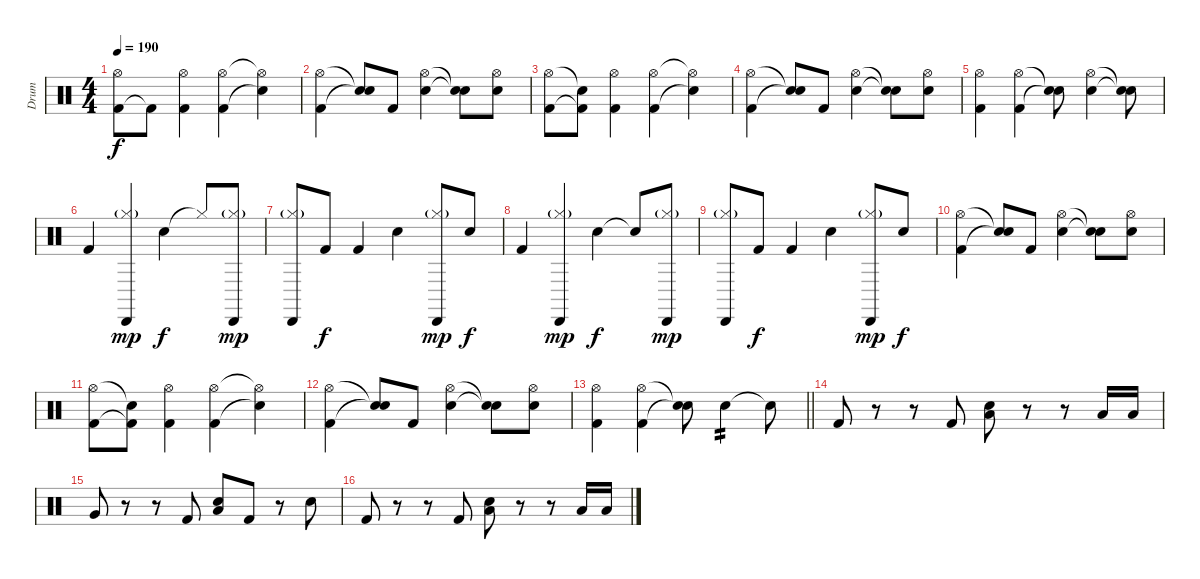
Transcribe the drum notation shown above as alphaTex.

\track ("Drum" "Drum") {instrument percussion}
\staff {score}
\articulation defaults
\ts (4 4)
\tempo 190
\clef neutral
\ks c
("Kick (hit) 2" "Hi-Hat (open)").8{dy f} "Kick (hit) 2"{t}.8 ("Kick (hit) 2" "Hi-Hat (open)").4 ("Kick (hit) 2" "Hi-Hat (open)").4 ("Snare (hit)"{t} "Hi-Hat (open)"{t}).4 |
("Kick (hit) 2" "Hi-Hat (open)").4 ("Snare (hit)"{t} "Snare (hit)"{t}).8 "Kick (hit) 2".8 ("Snare (hit) 2" "Hi-Hat (open)").4 ("Snare (hit)"{t} "Snare (hit)"{t}).8 ("Snare (hit) 2" "Hi-Hat (open)").8 |
("Kick (hit) 2" "Hi-Hat (open)").8 ("Kick (hit) 2"{t} "Snare (hit)"{t}).8 ("Kick (hit) 2" "Hi-Hat (open)").4 ("Kick (hit) 2" "Hi-Hat (open)").4 ("Snare (hit)"{t} "Hi-Hat (open)"{t}).4 |
("Kick (hit) 2" "Hi-Hat (open)").4 ("Snare (hit)"{t} "Snare (hit)"{t}).8 "Kick (hit) 2".8 ("Snare (hit) 2" "Hi-Hat (open)").4 ("Snare (hit)"{t} "Snare (hit)"{t}).8 ("Snare (hit) 2" "Hi-Hat (open)").8 |
("Kick (hit) 2" "Hi-Hat (open)").4 ("Kick (hit) 2" "Hi-Hat (open)").4 ("Snare (hit) 2"{t} "Snare (hit)"{t}).8 ("Snare (hit) 2" "Hi-Hat (open)").4 ("Snare (hit)"{t} "Snare (hit)"{t}).8 |
"Kick (hit) 2".4 ("Hi-Hat (closed)"{g} "Cabasa (hit)").4{dy mp} "Snare (hit) 2".4{dy f} "Hi-Hat (closed)"{t}.8 ("Hi-Hat (closed)"{g} "Cabasa (hit)").8{dy mp} |
("Hi-Hat (closed)"{g} "Cabasa (hit)").8 "Kick (hit) 2".8{dy f} "Kick (hit) 2".4 "Snare (hit) 2".4 ("Hi-Hat (closed)"{g} "Cabasa (hit)").8{dy mp} "Snare (hit) 2".8{dy f} |
"Kick (hit) 2".4 ("Hi-Hat (closed)"{g} "Cabasa (hit)").4{dy mp} "Snare (hit) 2".4{dy f} "Snare (hit)"{t}.8 ("Hi-Hat (closed)"{g} "Cabasa (hit)").8{dy mp} |
("Hi-Hat (closed)"{g} "Cabasa (hit)").8 "Kick (hit) 2".8{dy f} "Kick (hit) 2".4 "Snare (hit) 2".4 ("Hi-Hat (closed)"{g} "Cabasa (hit)").8{dy mp} "Snare (hit) 2".8{dy f} |
("Kick (hit) 2" "Hi-Hat (open)").4 ("Snare (hit)"{t} "Snare (hit)"{t}).8 "Kick (hit) 2".8 ("Snare (hit) 2" "Hi-Hat (open)").4 ("Snare (hit)"{t} "Snare (hit)"{t}).8 ("Snare (hit) 2" "Hi-Hat (open)").8 |
("Kick (hit) 2" "Hi-Hat (open)").8 ("Kick (hit) 2"{t} "Snare (hit)"{t}).8 ("Kick (hit) 2" "Hi-Hat (open)").4 ("Kick (hit) 2" "Hi-Hat (open)").4 ("Snare (hit)"{t} "Hi-Hat (open)"{t}).4 |
("Kick (hit) 2" "Hi-Hat (open)").4 ("Snare (hit)"{t} "Snare (hit)"{t}).8 "Kick (hit) 2".8 ("Snare (hit) 2" "Hi-Hat (open)").4 ("Snare (hit)"{t} "Snare (hit)"{t}).8 ("Snare (hit) 2" "Hi-Hat (open)").8 |
\barLineRight lightlight
("Kick (hit) 2" "Hi-Hat (open)").4 ("Kick (hit) 2" "Hi-Hat (open)").4 ("Snare (hit) 2"{t} "Snare (hit)"{t}).8 "Snare (hit) 2".4{tp 2} "Snare (hit)"{t}.8 |
\section ("" "")
"Kick (hit) 2".8 r.8 r.8 "Kick (hit) 2".8 ("Snare (hit) 2" "Low Floor Tom (hit)").8 r.8 r.8 "Low Tom (hit)".16 "Low Tom (hit)".16 |
"Very Low Tom (hit)".8 r.8 r.8 "Kick (hit) 2".8 ("Snare (hit) 2" "Low Floor Tom (hit)").8 "Kick (hit) 2".8 r.8 "Snare (hit) 2".8 |
"Kick (hit) 2".8 r.8 r.8 "Kick (hit) 2".8 ("Snare (hit) 2" "Low Floor Tom (hit)").8 r.8 r.8 "Low Tom (hit)".16 "Low Tom (hit)".16
